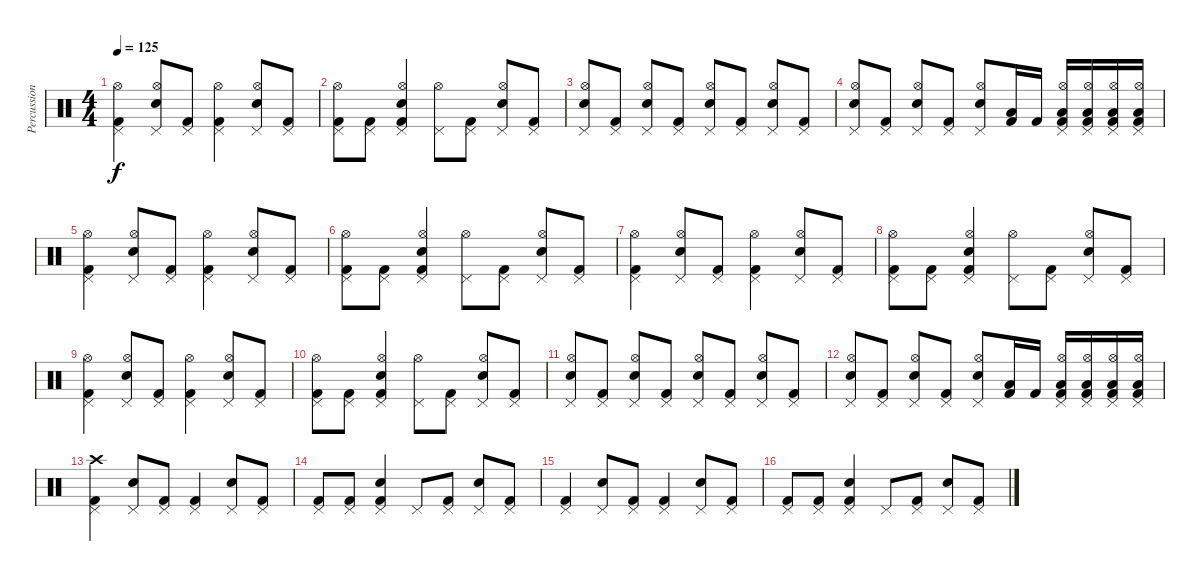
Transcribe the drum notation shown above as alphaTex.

\track ("Percussion" "Percussion") {instrument percussion}
\staff {score}
\articulation defaults
\ts (4 4)
\tempo 125
\clef neutral
\ks c
("Pedal Hi-Hat (hit)" "Kick (hit) 2" "Hi-Hat (open)").4{dy f} ("Pedal Hi-Hat (hit)" "Snare (hit) 2" "Hi-Hat (open)").8 ("Pedal Hi-Hat (hit)" "Kick (hit) 2").8 ("Pedal Hi-Hat (hit)" "Kick (hit) 2" "Hi-Hat (open)").4 ("Pedal Hi-Hat (hit)" "Snare (hit) 2" "Hi-Hat (open)").8 ("Pedal Hi-Hat (hit)" "Kick (hit) 2").8 |
("Pedal Hi-Hat (hit)" "Kick (hit) 2" "Hi-Hat (open)").8 ("Pedal Hi-Hat (hit)" "Kick (hit) 2").8 ("Pedal Hi-Hat (hit)" "Kick (hit) 2" "Snare (hit) 2" "Hi-Hat (open)").4 ("Pedal Hi-Hat (hit)" "Hi-Hat (open)").8 ("Pedal Hi-Hat (hit)" "Kick (hit) 2").8 ("Pedal Hi-Hat (hit)" "Snare (hit) 2" "Hi-Hat (open)").8 ("Pedal Hi-Hat (hit)" "Kick (hit) 2").8 |
("Pedal Hi-Hat (hit)" "Snare (hit) 2" "Hi-Hat (open)").8 ("Pedal Hi-Hat (hit)" "Kick (hit) 2").8 ("Pedal Hi-Hat (hit)" "Snare (hit) 2" "Hi-Hat (open)").8 ("Pedal Hi-Hat (hit)" "Kick (hit) 2").8 ("Pedal Hi-Hat (hit)" "Snare (hit) 2" "Hi-Hat (open)").8 ("Pedal Hi-Hat (hit)" "Kick (hit) 2").8 ("Pedal Hi-Hat (hit)" "Snare (hit) 2" "Hi-Hat (open)").8 ("Pedal Hi-Hat (hit)" "Kick (hit) 2").8 |
("Pedal Hi-Hat (hit)" "Snare (hit) 2" "Hi-Hat (open)").8 ("Pedal Hi-Hat (hit)" "Kick (hit) 2").8 ("Pedal Hi-Hat (hit)" "Snare (hit) 2" "Hi-Hat (open)").8 ("Pedal Hi-Hat (hit)" "Kick (hit) 2").8 ("Pedal Hi-Hat (hit)" "Snare (hit) 2" "Hi-Hat (open)").8 ("Low Tom (hit)" "Kick (hit) 2").16 "Kick (hit) 2".16 ("Hi-Hat (open)" "Low Tom (hit)" "Kick (hit) 2" "Pedal Hi-Hat (hit)").16 ("Hi-Hat (open)" "Low Tom (hit)" "Kick (hit) 2" "Pedal Hi-Hat (hit)").16 ("Hi-Hat (open)" "Low Tom (hit)" "Kick (hit) 2" "Pedal Hi-Hat (hit)").16 ("Hi-Hat (open)" "Low Tom (hit)" "Kick (hit) 2" "Pedal Hi-Hat (hit)").16 |
("Pedal Hi-Hat (hit)" "Kick (hit) 2" "Hi-Hat (open)").4 ("Pedal Hi-Hat (hit)" "Snare (hit) 2" "Hi-Hat (open)").8 ("Pedal Hi-Hat (hit)" "Kick (hit) 2").8 ("Pedal Hi-Hat (hit)" "Kick (hit) 2" "Hi-Hat (open)").4 ("Pedal Hi-Hat (hit)" "Snare (hit) 2" "Hi-Hat (open)").8 ("Pedal Hi-Hat (hit)" "Kick (hit) 2").8 |
("Pedal Hi-Hat (hit)" "Kick (hit) 2" "Hi-Hat (open)").8 ("Pedal Hi-Hat (hit)" "Kick (hit) 2").8 ("Pedal Hi-Hat (hit)" "Kick (hit) 2" "Snare (hit) 2" "Hi-Hat (open)").4 ("Pedal Hi-Hat (hit)" "Hi-Hat (open)").8 ("Pedal Hi-Hat (hit)" "Kick (hit) 2").8 ("Pedal Hi-Hat (hit)" "Snare (hit) 2" "Hi-Hat (open)").8 ("Pedal Hi-Hat (hit)" "Kick (hit) 2").8 |
("Pedal Hi-Hat (hit)" "Kick (hit) 2" "Hi-Hat (open)").4 ("Pedal Hi-Hat (hit)" "Snare (hit) 2" "Hi-Hat (open)").8 ("Pedal Hi-Hat (hit)" "Kick (hit) 2").8 ("Pedal Hi-Hat (hit)" "Kick (hit) 2" "Hi-Hat (open)").4 ("Pedal Hi-Hat (hit)" "Snare (hit) 2" "Hi-Hat (open)").8 ("Pedal Hi-Hat (hit)" "Kick (hit) 2").8 |
("Pedal Hi-Hat (hit)" "Kick (hit) 2" "Hi-Hat (open)").8 ("Pedal Hi-Hat (hit)" "Kick (hit) 2").8 ("Pedal Hi-Hat (hit)" "Kick (hit) 2" "Snare (hit) 2" "Hi-Hat (open)").4 ("Pedal Hi-Hat (hit)" "Hi-Hat (open)").8 ("Pedal Hi-Hat (hit)" "Kick (hit) 2").8 ("Pedal Hi-Hat (hit)" "Snare (hit) 2" "Hi-Hat (open)").8 ("Pedal Hi-Hat (hit)" "Kick (hit) 2").8 |
("Pedal Hi-Hat (hit)" "Kick (hit) 2" "Hi-Hat (open)").4 ("Pedal Hi-Hat (hit)" "Snare (hit) 2" "Hi-Hat (open)").8 ("Pedal Hi-Hat (hit)" "Kick (hit) 2").8 ("Pedal Hi-Hat (hit)" "Kick (hit) 2" "Hi-Hat (open)").4 ("Pedal Hi-Hat (hit)" "Snare (hit) 2" "Hi-Hat (open)").8 ("Pedal Hi-Hat (hit)" "Kick (hit) 2").8 |
("Pedal Hi-Hat (hit)" "Kick (hit) 2" "Hi-Hat (open)").8 ("Pedal Hi-Hat (hit)" "Kick (hit) 2").8 ("Pedal Hi-Hat (hit)" "Kick (hit) 2" "Snare (hit) 2" "Hi-Hat (open)").4 ("Pedal Hi-Hat (hit)" "Hi-Hat (open)").8 ("Pedal Hi-Hat (hit)" "Kick (hit) 2").8 ("Pedal Hi-Hat (hit)" "Snare (hit) 2" "Hi-Hat (open)").8 ("Pedal Hi-Hat (hit)" "Kick (hit) 2").8 |
("Pedal Hi-Hat (hit)" "Snare (hit) 2" "Hi-Hat (open)").8 ("Pedal Hi-Hat (hit)" "Kick (hit) 2").8 ("Pedal Hi-Hat (hit)" "Snare (hit) 2" "Hi-Hat (open)").8 ("Pedal Hi-Hat (hit)" "Kick (hit) 2").8 ("Pedal Hi-Hat (hit)" "Snare (hit) 2" "Hi-Hat (open)").8 ("Pedal Hi-Hat (hit)" "Kick (hit) 2").8 ("Pedal Hi-Hat (hit)" "Snare (hit) 2" "Hi-Hat (open)").8 ("Pedal Hi-Hat (hit)" "Kick (hit) 2").8 |
("Pedal Hi-Hat (hit)" "Snare (hit) 2" "Hi-Hat (open)").8 ("Pedal Hi-Hat (hit)" "Kick (hit) 2").8 ("Pedal Hi-Hat (hit)" "Snare (hit) 2" "Hi-Hat (open)").8 ("Pedal Hi-Hat (hit)" "Kick (hit) 2").8 ("Pedal Hi-Hat (hit)" "Snare (hit) 2" "Hi-Hat (open)").8 ("Low Tom (hit)" "Kick (hit) 2").16 "Kick (hit) 2".16 ("Hi-Hat (open)" "Low Tom (hit)" "Kick (hit) 2" "Pedal Hi-Hat (hit)").16 ("Hi-Hat (open)" "Low Tom (hit)" "Kick (hit) 2" "Pedal Hi-Hat (hit)").16 ("Hi-Hat (open)" "Low Tom (hit)" "Kick (hit) 2" "Pedal Hi-Hat (hit)").16 ("Hi-Hat (open)" "Low Tom (hit)" "Kick (hit) 2" "Pedal Hi-Hat (hit)").16 |
("Pedal Hi-Hat (hit)" "Kick (hit) 2" "Crash high (hit)").4 ("Pedal Hi-Hat (hit)" "Snare (hit) 2").8 ("Pedal Hi-Hat (hit)" "Kick (hit) 2").8 ("Pedal Hi-Hat (hit)" "Kick (hit) 2").4 ("Pedal Hi-Hat (hit)" "Snare (hit) 2").8 ("Pedal Hi-Hat (hit)" "Kick (hit) 2").8 |
("Pedal Hi-Hat (hit)" "Kick (hit) 2").8 ("Pedal Hi-Hat (hit)" "Kick (hit) 2").8 ("Pedal Hi-Hat (hit)" "Kick (hit) 2" "Snare (hit) 2").4 "Pedal Hi-Hat (hit)".8 ("Pedal Hi-Hat (hit)" "Kick (hit) 2").8 ("Pedal Hi-Hat (hit)" "Snare (hit) 2").8 ("Pedal Hi-Hat (hit)" "Kick (hit) 2").8 |
("Pedal Hi-Hat (hit)" "Kick (hit) 2").4 ("Pedal Hi-Hat (hit)" "Snare (hit) 2").8 ("Pedal Hi-Hat (hit)" "Kick (hit) 2").8 ("Pedal Hi-Hat (hit)" "Kick (hit) 2").4 ("Pedal Hi-Hat (hit)" "Snare (hit) 2").8 ("Pedal Hi-Hat (hit)" "Kick (hit) 2").8 |
("Pedal Hi-Hat (hit)" "Kick (hit) 2").8 ("Pedal Hi-Hat (hit)" "Kick (hit) 2").8 ("Pedal Hi-Hat (hit)" "Kick (hit) 2" "Snare (hit) 2").4 "Pedal Hi-Hat (hit)".8 ("Pedal Hi-Hat (hit)" "Kick (hit) 2").8 ("Pedal Hi-Hat (hit)" "Snare (hit) 2").8 ("Pedal Hi-Hat (hit)" "Kick (hit) 2").8
